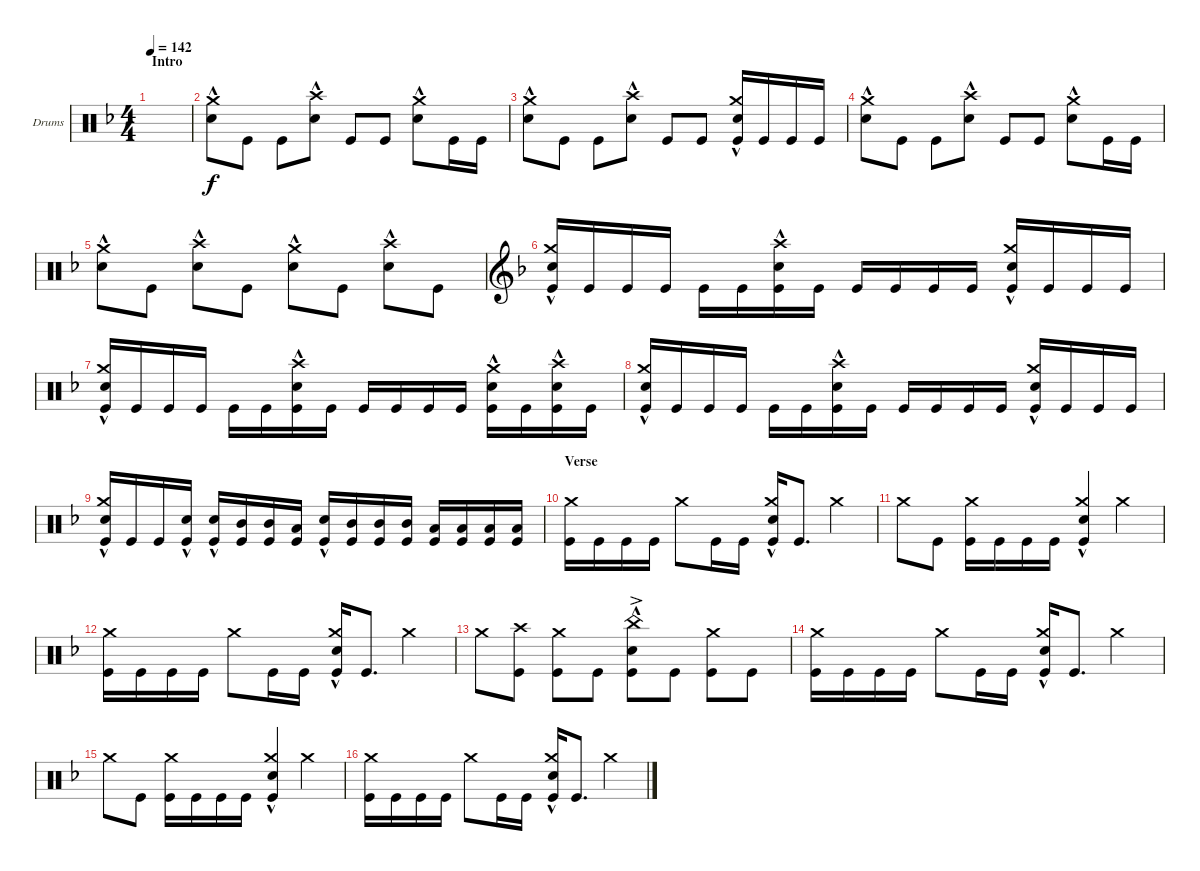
\bracketExtendMode groupsimilarinstruments
\firstSystemTrackNameOrientation horizontal
\otherSystemsTrackNameOrientation horizontal
\track ("Drumkit" "Drums") {instrument percussion}
\staff {score}
\articulation defaults
\ts (4 4)
\section ("" "Intro")
\tempo 142
\clef neutral
\scale
0.472222
\ks dminor
|
\scale
0.263889 ("Snare (hit) 2"{hac} "Crash medium (hit)").8 "Kick (hit)".8 "Kick (hit)".8 ("Snare (hit) 2"{hac} "Crash high (hit)").8 "Kick (hit)".8 "Kick (hit)".8 ("Snare (hit) 2"{hac} "Crash medium (hit)").8 "Kick (hit)".16 "Kick (hit)".16 |
\scale
0.263889 ("Snare (hit) 2"{hac} "Crash medium (hit)").8 "Kick (hit)".8 "Kick (hit)".8 ("Snare (hit) 2"{hac} "Crash high (hit)").8 "Kick (hit)".8 "Kick (hit)".8 ("Snare (hit) 2"{hac} "Crash medium (hit)" "Kick (hit)").16 "Kick (hit)".16 "Kick (hit)".16 "Kick (hit)".16 |
\scale
0.333333 ("Snare (hit) 2"{hac} "Crash medium (hit)").8 "Kick (hit)".8 "Kick (hit)".8 ("Snare (hit) 2"{hac} "Crash high (hit)").8 "Kick (hit)".8 "Kick (hit)".8 ("Snare (hit) 2"{hac} "Crash medium (hit)").8 "Kick (hit)".16 "Kick (hit)".16 |
\scale
0.333333 ("Snare (hit) 2"{hac} "Crash medium (hit)").8 "Kick (hit)".8 ("Snare (hit) 2"{hac} "Crash high (hit)").8 "Kick (hit)".8 ("Snare (hit) 2"{hac} "Crash medium (hit)").8 "Kick (hit)".8 ("Snare (hit) 2"{hac} "Crash high (hit)").8 "Kick (hit)".8 |
\clef g2
\scale
0.333333 ("Kick (hit)" "Snare (hit) 2"{hac} "Crash medium (hit)").16 "Kick (hit)".16 "Kick (hit)".16 "Kick (hit)".16 "Kick (hit)".16 "Kick (hit)".16 ("Kick (hit)" "Snare (hit) 2"{hac} "Crash high (hit)").16 "Kick (hit)".16 "Kick (hit)".16 "Kick (hit)".16 "Kick (hit)".16 "Kick (hit)".16 ("Kick (hit)" "Snare (hit) 2"{hac} "Crash medium (hit)").16 "Kick (hit)".16 "Kick (hit)".16 "Kick (hit)".16 |
\clef neutral
\scale
0.333333 ("Kick (hit)" "Snare (hit) 2"{hac} "Crash medium (hit)").16 "Kick (hit)".16 "Kick (hit)".16 "Kick (hit)".16 "Kick (hit)".16 "Kick (hit)".16 ("Kick (hit)" "Snare (hit) 2"{hac} "Crash high (hit)").16 "Kick (hit)".16 "Kick (hit)".16 "Kick (hit)".16 "Kick (hit)".16 "Kick (hit)".16 ("Kick (hit)" "Snare (hit) 2"{hac} "Crash medium (hit)").16 "Kick (hit)".16 ("Kick (hit)" "Crash high (hit)" "Snare (hit) 2"{hac}).16 "Kick (hit)".16 |
\scale
0.333333 ("Kick (hit)" "Snare (hit) 2"{hac} "Crash medium (hit)").16 "Kick (hit)".16 "Kick (hit)".16 "Kick (hit)".16 "Kick (hit)".16 "Kick (hit)".16 ("Kick (hit)" "Snare (hit) 2"{hac} "Crash high (hit)").16 "Kick (hit)".16 "Kick (hit)".16 "Kick (hit)".16 "Kick (hit)".16 "Kick (hit)".16 ("Kick (hit)" "Snare (hit) 2"{hac} "Crash medium (hit)").16 "Kick (hit)".16 "Kick (hit)".16 "Kick (hit)".16 |
\scale
0.333333 ("Kick (hit)" "Snare (hit) 2"{hac} "Crash medium (hit)").16 "Kick (hit)".16 "Kick (hit)".16 ("Kick (hit)" "Snare (hit) 2"{hac}).16 ("Kick (hit)" "Snare (hit) 2"{hac}).16 ("Kick (hit)" "Mid Tom (hit)").16 ("Kick (hit)" "Mid Tom (hit)").16 ("Kick (hit)" "Low Tom (hit)").16 ("Kick (hit)" "Snare (hit) 2"{hac}).16 ("Kick (hit)" "Mid Tom (hit)").16 ("Kick (hit)" "Mid Tom (hit)").16 ("Kick (hit)" "Mid Tom (hit)").16 ("Kick (hit)" "Low Tom (hit)").16 ("Kick (hit)" "Low Tom (hit)").16 ("Kick (hit)" "Low Tom (hit)").16 ("Kick (hit)" "Low Tom (hit)").16 |
\section ("" "Verse")
\scale
0.333333 ("Kick (hit)" "Crash medium (hit)").16 "Kick (hit)".16 "Kick (hit)".16 "Kick (hit)".16 "Crash medium (hit)".8 "Kick (hit)".16 "Kick (hit)".16 ("Kick (hit)" "Crash medium (hit)" "Snare (hit) 2"{hac}).16 "Kick (hit)".8{d} "Crash medium (hit)".4 |
\scale
0.333333 "Crash medium (hit)".8 "Kick (hit)".8 ("Kick (hit)" "Crash medium (hit)").16 "Kick (hit)".16 "Kick (hit)".16 "Kick (hit)".16 ("Kick (hit)" "Crash medium (hit)" "Snare (hit) 2"{hac}).4 "Crash medium (hit)".4 |
\scale
0.333333 ("Kick (hit)" "Crash medium (hit)").16 "Kick (hit)".16 "Kick (hit)".16 "Kick (hit)".16 "Crash medium (hit)".8 "Kick (hit)".16 "Kick (hit)".16 ("Kick (hit)" "Crash medium (hit)" "Snare (hit) 2"{hac}).16 "Kick (hit)".8{d} "Crash medium (hit)".4 |
\scale
0.333333 "Crash medium (hit)".8 ("Kick (hit)" "Crash high (hit)").8 ("Kick (hit)" "Crash medium (hit)").8 "Kick (hit)".8 ("Kick (hit)" "Snare (hit) 2"{hac} "China (hit)"{ac}).8 "Kick (hit)".8 ("Kick (hit)" "Crash medium (hit)").8 "Kick (hit)".8 |
\scale
0.333333 ("Kick (hit)" "Crash medium (hit)").16 "Kick (hit)".16 "Kick (hit)".16 "Kick (hit)".16 "Crash medium (hit)".8 "Kick (hit)".16 "Kick (hit)".16 ("Kick (hit)" "Crash medium (hit)" "Snare (hit) 2"{hac}).16 "Kick (hit)".8{d} "Crash medium (hit)".4 |
\scale
0.333333 "Crash medium (hit)".8 "Kick (hit)".8 ("Kick (hit)" "Crash medium (hit)").16 "Kick (hit)".16 "Kick (hit)".16 "Kick (hit)".16 ("Kick (hit)" "Crash medium (hit)" "Snare (hit) 2"{hac}).4 "Crash medium (hit)".4 |
\scale
0.333333 ("Kick (hit)" "Crash medium (hit)").16 "Kick (hit)".16 "Kick (hit)".16 "Kick (hit)".16 "Crash medium (hit)".8 "Kick (hit)".16 "Kick (hit)".16 ("Kick (hit)" "Crash medium (hit)" "Snare (hit) 2"{hac}).16 "Kick (hit)".8{d} "Crash medium (hit)".4
